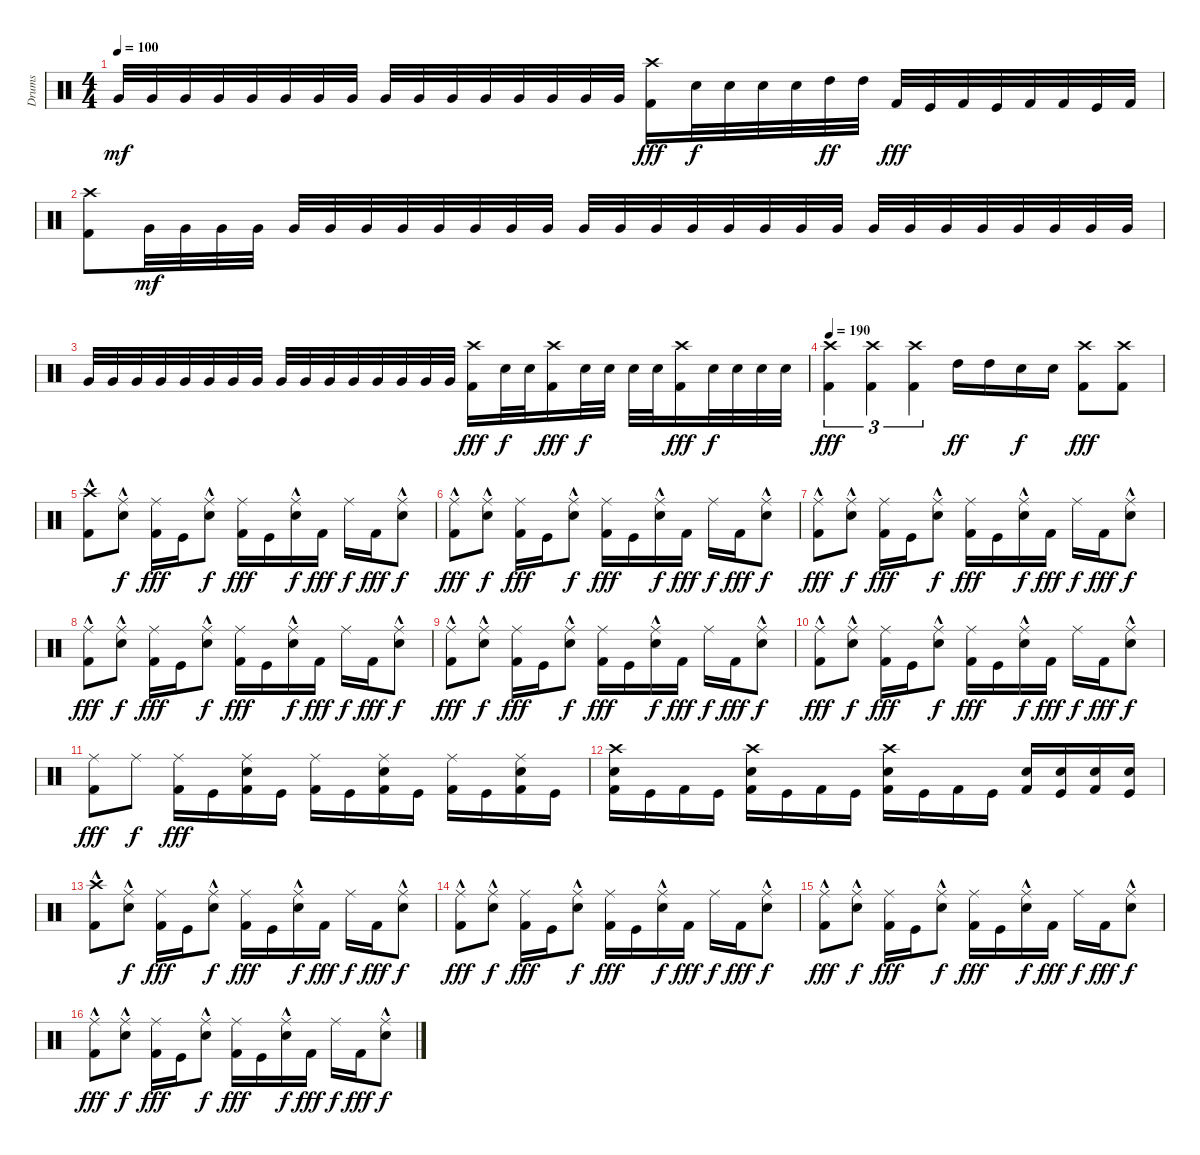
\track ("Drums" "Drums") {instrument percussion}
\staff {score}
\articulation defaults
\ts (4 4)
\tempo 100
\clef neutral
\ks c "Very Low Tom (hit)".32{dy mf} "Very Low Tom (hit)".32 "Very Low Tom (hit)".32 "Very Low Tom (hit)".32 "Very Low Tom (hit)".32 "Very Low Tom (hit)".32 "Very Low Tom (hit)".32 "Very Low Tom (hit)".32 "Very Low Tom (hit)".32 "Very Low Tom (hit)".32 "Very Low Tom (hit)".32 "Very Low Tom (hit)".32 "Very Low Tom (hit)".32 "Very Low Tom (hit)".32 "Very Low Tom (hit)".32 "Very Low Tom (hit)".32
("Crash high (hit)" "Kick (hit) 2").16{dy fff} "Electric Snare (hit)".32{dy f} "Electric Snare (hit)".32 "Electric Snare (hit)".32 "Electric Snare (hit)".32 "High Tom (hit)".32{dy ff} "High Tom (hit)".32 "Kick (hit) 2".32{dy fff} "Kick (hit)".32 "Kick (hit) 2".32 "Kick (hit)".32 "Kick (hit) 2".32 "Kick (hit) 2".32 "Kick (hit)".32 "Kick (hit) 2".32 |
("Crash high (hit)" "Kick (hit) 2").8 "Very Low Tom (hit)".32{dy mf} "Very Low Tom (hit)".32 "Very Low Tom (hit)".32 "Very Low Tom (hit)".32 "Very Low Tom (hit)".32 "Very Low Tom (hit)".32 "Very Low Tom (hit)".32 "Very Low Tom (hit)".32 "Very Low Tom (hit)".32 "Very Low Tom (hit)".32 "Very Low Tom (hit)".32 "Very Low Tom (hit)".32 "Very Low Tom (hit)".32 "Very Low Tom (hit)".32 "Very Low Tom (hit)".32 "Very Low Tom (hit)".32 "Very Low Tom (hit)".32 "Very Low Tom (hit)".32 "Very Low Tom (hit)".32 "Very Low Tom (hit)".32 "Very Low Tom (hit)".32 "Very Low Tom (hit)".32 "Very Low Tom (hit)".32 "Very Low Tom (hit)".32 "Very Low Tom (hit)".32 "Very Low Tom (hit)".32 "Very Low Tom (hit)".32 "Very Low Tom (hit)".32 |
"Very Low Tom (hit)".32 "Very Low Tom (hit)".32 "Very Low Tom (hit)".32 "Very Low Tom (hit)".32 "Very Low Tom (hit)".32 "Very Low Tom (hit)".32 "Very Low Tom (hit)".32 "Very Low Tom (hit)".32 "Very Low Tom (hit)".32 "Very Low Tom (hit)".32 "Very Low Tom (hit)".32 "Very Low Tom (hit)".32 "Very Low Tom (hit)".32 "Very Low Tom (hit)".32 "Very Low Tom (hit)".32 "Very Low Tom (hit)".32 ("Crash high (hit)" "Kick (hit) 2").16{dy fff} "Electric Snare (hit)".32{dy f} "Electric Snare (hit)".32 ("Crash high (hit)" "Kick (hit) 2").16{dy fff} "Electric Snare (hit)".32{dy f} "Electric Snare (hit)".32 "Electric Snare (hit)".32 "Electric Snare (hit)".32 ("Crash high (hit)" "Kick (hit) 2").16{dy fff} "Electric Snare (hit)".32{dy f} "Electric Snare (hit)".32 "Electric Snare (hit)".32 "Electric Snare (hit)".32 |
\tempo 190
("Crash high (hit)" "Kick (hit) 2").4{tu (3 2) dy fff volume 15 balance 8} ("Crash high (hit)" "Kick (hit) 2").4{tu (3 2)} ("Crash high (hit)" "Kick (hit) 2").4{tu (3 2)} "High Tom (hit)".16{dy ff} "High Tom (hit)".16 "Electric Snare (hit)".16{dy f} "Electric Snare (hit)".16 ("Crash high (hit)" "Kick (hit) 2").8{dy fff} ("Crash high (hit)" "Kick (hit) 2").8 |
("Crash high (hit)"{hac} "Kick (hit) 2").8 ("Ride (middle)"{hac} "Electric Snare (hit)").8{dy f} ("Ride (middle)" "Kick (hit) 2").16{dy fff} "Kick (hit)".16 ("Ride (middle)"{hac} "Electric Snare (hit)").8{dy f} ("Ride (middle)" "Kick (hit) 2").16{dy fff} "Kick (hit)".16 ("Ride (middle)"{hac} "Electric Snare (hit)").16{dy f} "Kick (hit) 2".16{dy fff} "Ride (middle)".16{dy f} "Kick (hit) 2".16{dy fff} ("Ride (middle)"{hac} "Electric Snare (hit)").8{dy f} |
("Ride (middle)"{hac} "Kick (hit) 2").8{dy fff} ("Ride (middle)"{hac} "Electric Snare (hit)").8{dy f} ("Ride (middle)" "Kick (hit) 2").16{dy fff} "Kick (hit)".16 ("Ride (middle)"{hac} "Electric Snare (hit)").8{dy f} ("Ride (middle)" "Kick (hit) 2").16{dy fff} "Kick (hit)".16 ("Ride (middle)"{hac} "Electric Snare (hit)").16{dy f} "Kick (hit) 2".16{dy fff} "Ride (middle)".16{dy f} "Kick (hit) 2".16{dy fff} ("Ride (middle)"{hac} "Electric Snare (hit)").8{dy f} |
("Ride (middle)"{hac} "Kick (hit) 2").8{dy fff} ("Ride (middle)"{hac} "Electric Snare (hit)").8{dy f} ("Ride (middle)" "Kick (hit) 2").16{dy fff} "Kick (hit)".16 ("Ride (middle)"{hac} "Electric Snare (hit)").8{dy f} ("Ride (middle)" "Kick (hit) 2").16{dy fff} "Kick (hit)".16 ("Ride (middle)"{hac} "Electric Snare (hit)").16{dy f} "Kick (hit) 2".16{dy fff} "Ride (middle)".16{dy f} "Kick (hit) 2".16{dy fff} ("Ride (middle)"{hac} "Electric Snare (hit)").8{dy f} |
("Ride (middle)"{hac} "Kick (hit) 2").8{dy fff} ("Ride (middle)"{hac} "Electric Snare (hit)").8{dy f} ("Ride (middle)" "Kick (hit) 2").16{dy fff} "Kick (hit)".16 ("Ride (middle)"{hac} "Electric Snare (hit)").8{dy f} ("Ride (middle)" "Kick (hit) 2").16{dy fff} "Kick (hit)".16 ("Ride (middle)"{hac} "Electric Snare (hit)").16{dy f} "Kick (hit) 2".16{dy fff} "Ride (middle)".16{dy f} "Kick (hit) 2".16{dy fff} ("Ride (middle)"{hac} "Electric Snare (hit)").8{dy f} |
("Ride (middle)"{hac} "Kick (hit) 2").8{dy fff} ("Ride (middle)"{hac} "Electric Snare (hit)").8{dy f} ("Ride (middle)" "Kick (hit) 2").16{dy fff} "Kick (hit)".16 ("Ride (middle)"{hac} "Electric Snare (hit)").8{dy f} ("Ride (middle)" "Kick (hit) 2").16{dy fff} "Kick (hit)".16 ("Ride (middle)"{hac} "Electric Snare (hit)").16{dy f} "Kick (hit) 2".16{dy fff} "Ride (middle)".16{dy f} "Kick (hit) 2".16{dy fff} ("Ride (middle)"{hac} "Electric Snare (hit)").8{dy f} |
("Ride (middle)"{hac} "Kick (hit) 2").8{dy fff} ("Ride (middle)"{hac} "Electric Snare (hit)").8{dy f} ("Ride (middle)" "Kick (hit) 2").16{dy fff} "Kick (hit)".16 ("Ride (middle)"{hac} "Electric Snare (hit)").8{dy f} ("Ride (middle)" "Kick (hit) 2").16{dy fff} "Kick (hit)".16 ("Ride (middle)"{hac} "Electric Snare (hit)").16{dy f} "Kick (hit) 2".16{dy fff} "Ride (middle)".16{dy f} "Kick (hit) 2".16{dy fff} ("Ride (middle)"{hac} "Electric Snare (hit)").8{dy f} |
("Ride (middle)" "Kick (hit) 2").8{dy fff} "Ride (middle)".8{dy f} ("Ride (middle)" "Kick (hit) 2").16{dy fff} "Kick (hit)".16 ("Ride (middle)" "Electric Snare (hit)" "Kick (hit) 2").16 "Kick (hit)".16 ("Ride (middle)" "Kick (hit) 2").16 "Kick (hit)".16 ("Ride (middle)" "Electric Snare (hit)" "Kick (hit) 2").16 "Kick (hit)".16 ("Ride (middle)" "Kick (hit) 2").16 "Kick (hit)".16 ("Ride (middle)" "Electric Snare (hit)" "Kick (hit) 2").16 "Kick (hit)".16 |
("Crash high (hit)" "Electric Snare (hit)" "Kick (hit) 2").16 "Kick (hit)".16 "Kick (hit) 2".16 "Kick (hit)".16 ("Crash high (hit)" "Electric Snare (hit)" "Kick (hit) 2").16 "Kick (hit)".16 "Kick (hit) 2".16 "Kick (hit)".16 ("Crash high (hit)" "Electric Snare (hit)" "Kick (hit) 2").16 "Kick (hit)".16 "Kick (hit) 2".16 "Kick (hit)".16 ("Electric Snare (hit)" "Kick (hit) 2").16 ("Electric Snare (hit)" "Kick (hit)").16 ("Electric Snare (hit)" "Kick (hit) 2").16 ("Electric Snare (hit)" "Kick (hit)").16 |
("Crash high (hit)"{hac} "Kick (hit) 2").8 ("Ride (middle)"{hac} "Electric Snare (hit)").8{dy f} ("Ride (middle)" "Kick (hit) 2").16{dy fff} "Kick (hit)".16 ("Ride (middle)"{hac} "Electric Snare (hit)").8{dy f} ("Ride (middle)" "Kick (hit) 2").16{dy fff} "Kick (hit)".16 ("Ride (middle)"{hac} "Electric Snare (hit)").16{dy f} "Kick (hit) 2".16{dy fff} "Ride (middle)".16{dy f} "Kick (hit) 2".16{dy fff} ("Ride (middle)"{hac} "Electric Snare (hit)").8{dy f} |
("Ride (middle)"{hac} "Kick (hit) 2").8{dy fff} ("Ride (middle)"{hac} "Electric Snare (hit)").8{dy f} ("Ride (middle)" "Kick (hit) 2").16{dy fff} "Kick (hit)".16 ("Ride (middle)"{hac} "Electric Snare (hit)").8{dy f} ("Ride (middle)" "Kick (hit) 2").16{dy fff} "Kick (hit)".16 ("Ride (middle)"{hac} "Electric Snare (hit)").16{dy f} "Kick (hit) 2".16{dy fff} "Ride (middle)".16{dy f} "Kick (hit) 2".16{dy fff} ("Ride (middle)"{hac} "Electric Snare (hit)").8{dy f} |
("Ride (middle)"{hac} "Kick (hit) 2").8{dy fff} ("Ride (middle)"{hac} "Electric Snare (hit)").8{dy f} ("Ride (middle)" "Kick (hit) 2").16{dy fff} "Kick (hit)".16 ("Ride (middle)"{hac} "Electric Snare (hit)").8{dy f} ("Ride (middle)" "Kick (hit) 2").16{dy fff} "Kick (hit)".16 ("Ride (middle)"{hac} "Electric Snare (hit)").16{dy f} "Kick (hit) 2".16{dy fff} "Ride (middle)".16{dy f} "Kick (hit) 2".16{dy fff} ("Ride (middle)"{hac} "Electric Snare (hit)").8{dy f} |
("Ride (middle)"{hac} "Kick (hit) 2").8{dy fff} ("Ride (middle)"{hac} "Electric Snare (hit)").8{dy f} ("Ride (middle)" "Kick (hit) 2").16{dy fff} "Kick (hit)".16 ("Ride (middle)"{hac} "Electric Snare (hit)").8{dy f} ("Ride (middle)" "Kick (hit) 2").16{dy fff} "Kick (hit)".16 ("Ride (middle)"{hac} "Electric Snare (hit)").16{dy f} "Kick (hit) 2".16{dy fff} "Ride (middle)".16{dy f} "Kick (hit) 2".16{dy fff} ("Ride (middle)"{hac} "Electric Snare (hit)").8{dy f}
